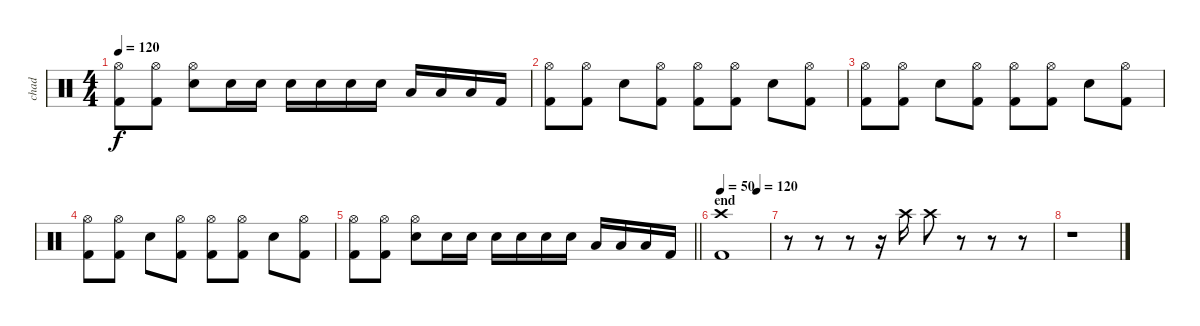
\track ("chad" "chad") {instrument percussion}
\staff {score}
\articulation defaults
\ts (4 4)
\tempo 120
\clef neutral
\ks c
("Hi-Hat (open)" "Kick (hit) 2").8{dy f} ("Hi-Hat (open)" "Kick (hit) 2").8 ("Hi-Hat (open)" "Electric Snare (hit)").8 "Snare (hit) 2".16 "Snare (hit) 2".16 "Snare (hit) 2".16 "Electric Snare (hit)".16 "Electric Snare (hit)".16 "Electric Snare (hit)".16 "Low Tom (hit)".16 "Low Tom (hit)".16 "Low Tom (hit)".16 "Kick (hit) 2".16 |
("Hi-Hat (open)" "Kick (hit) 2").8 ("Hi-Hat (open)" "Kick (hit) 2").8 "Electric Snare (hit)".8 ("Hi-Hat (open)" "Kick (hit) 2").8 ("Hi-Hat (open)" "Kick (hit) 2").8 ("Hi-Hat (open)" "Kick (hit) 2").8 "Electric Snare (hit)".8 ("Hi-Hat (open)" "Kick (hit) 2").8 |
("Hi-Hat (open)" "Kick (hit) 2").8 ("Hi-Hat (open)" "Kick (hit) 2").8 "Electric Snare (hit)".8 ("Hi-Hat (open)" "Kick (hit) 2").8 ("Hi-Hat (open)" "Kick (hit) 2").8 ("Hi-Hat (open)" "Kick (hit) 2").8 "Electric Snare (hit)".8 ("Hi-Hat (open)" "Kick (hit) 2").8 |
("Hi-Hat (open)" "Kick (hit) 2").8 ("Hi-Hat (open)" "Kick (hit) 2").8 "Electric Snare (hit)".8 ("Hi-Hat (open)" "Kick (hit) 2").8 ("Hi-Hat (open)" "Kick (hit) 2").8 ("Hi-Hat (open)" "Kick (hit) 2").8 "Electric Snare (hit)".8 ("Hi-Hat (open)" "Kick (hit) 2").8 |
\barLineRight lightlight
("Hi-Hat (open)" "Kick (hit) 2").8 ("Hi-Hat (open)" "Kick (hit) 2").8 ("Hi-Hat (open)" "Electric Snare (hit)").8 "Snare (hit) 2".16 "Snare (hit) 2".16 "Snare (hit) 2".16 "Electric Snare (hit)".16 "Electric Snare (hit)".16 "Electric Snare (hit)".16 "Low Tom (hit)".16 "Low Tom (hit)".16 "Low Tom (hit)".16 "Kick (hit) 2".16 |
\section ("" "end")
\tempo 50
\tempo (120 0.75)
("Crash high (hit)" "Kick (hit) 2").1 |
r.8 r.8 r.8 r.16 "Crash high (hit)".16 "Crash high (hit)".8 r.8 r.8 r.8 |
r.1
